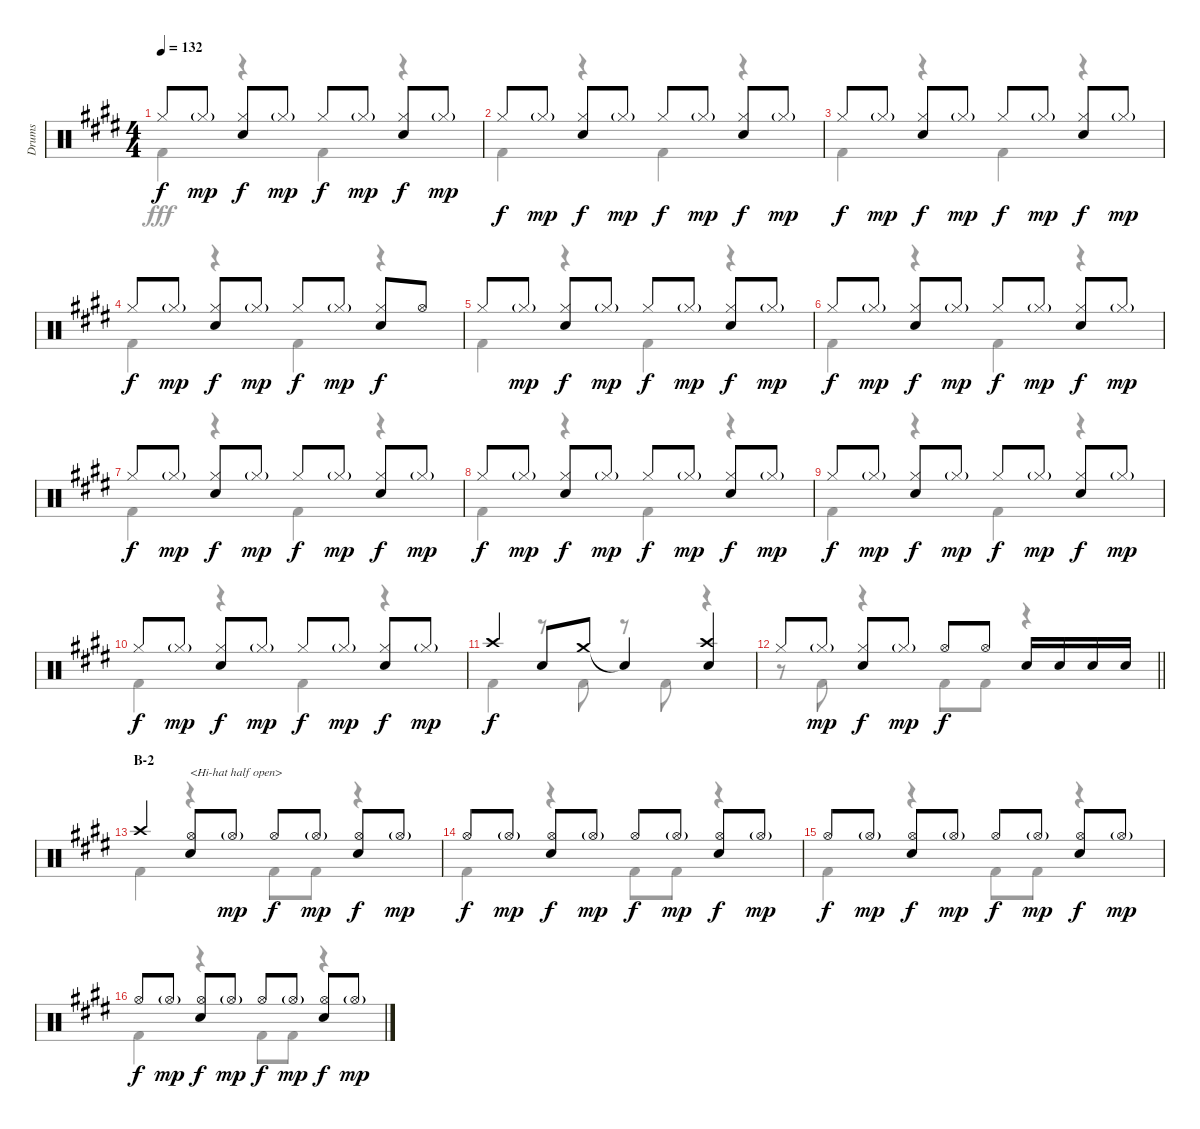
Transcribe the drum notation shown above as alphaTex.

\track ("Drums" "Drums") {instrument percussion}
\staff {score}
\articulation defaults
\voice
\ts (4 4)
\tempo 132
\clef neutral
\ks e "Hi-Hat (closed)".8{dy f} "Hi-Hat (closed)"{g}.8{dy mp}
("Hi-Hat (closed)" "Snare (hit) 2").8{dy f} "Hi-Hat (closed)"{g}.8{dy mp} "Hi-Hat (closed)".8{dy f} "Hi-Hat (closed)"{g}.8{dy mp} ("Hi-Hat (closed)" "Snare (hit) 2").8{dy f} "Hi-Hat (closed)"{g}.8{dy mp} |
"Hi-Hat (closed)".8{dy f} "Hi-Hat (closed)"{g}.8{dy mp} ("Hi-Hat (closed)" "Snare (hit) 2").8{dy f} "Hi-Hat (closed)"{g}.8{dy mp} "Hi-Hat (closed)".8{dy f} "Hi-Hat (closed)"{g}.8{dy mp} ("Hi-Hat (closed)" "Snare (hit) 2").8{dy f} "Hi-Hat (closed)"{g}.8{dy mp} |
"Hi-Hat (closed)".8{dy f} "Hi-Hat (closed)"{g}.8{dy mp} ("Hi-Hat (closed)" "Snare (hit) 2").8{dy f} "Hi-Hat (closed)"{g}.8{dy mp} "Hi-Hat (closed)".8{dy f} "Hi-Hat (closed)"{g}.8{dy mp} ("Hi-Hat (closed)" "Snare (hit) 2").8{dy f} "Hi-Hat (closed)"{g}.8{dy mp} |
"Hi-Hat (closed)".8{dy f} "Hi-Hat (closed)"{g}.8{dy mp} ("Hi-Hat (closed)" "Snare (hit) 2").8{dy f} "Hi-Hat (closed)"{g}.8{dy mp} "Hi-Hat (closed)".8{dy f} "Hi-Hat (closed)"{g}.8{dy mp} ("Hi-Hat (closed)" "Snare (hit) 2").8{dy f} "Hi-Hat (open)".8 |
"Hi-Hat (closed)".8 "Hi-Hat (closed)"{g}.8{dy mp} ("Hi-Hat (closed)" "Snare (hit) 2").8{dy f} "Hi-Hat (closed)"{g}.8{dy mp} "Hi-Hat (closed)".8{dy f} "Hi-Hat (closed)"{g}.8{dy mp} ("Hi-Hat (closed)" "Snare (hit) 2").8{dy f} "Hi-Hat (closed)"{g}.8{dy mp} |
"Hi-Hat (closed)".8{dy f} "Hi-Hat (closed)"{g}.8{dy mp} ("Hi-Hat (closed)" "Snare (hit) 2").8{dy f} "Hi-Hat (closed)"{g}.8{dy mp} "Hi-Hat (closed)".8{dy f} "Hi-Hat (closed)"{g}.8{dy mp} ("Hi-Hat (closed)" "Snare (hit) 2").8{dy f} "Hi-Hat (closed)"{g}.8{dy mp} |
"Hi-Hat (closed)".8{dy f} "Hi-Hat (closed)"{g}.8{dy mp} ("Hi-Hat (closed)" "Snare (hit) 2").8{dy f} "Hi-Hat (closed)"{g}.8{dy mp} "Hi-Hat (closed)".8{dy f} "Hi-Hat (closed)"{g}.8{dy mp} ("Hi-Hat (closed)" "Snare (hit) 2").8{dy f} "Hi-Hat (closed)"{g}.8{dy mp} |
"Hi-Hat (closed)".8{dy f} "Hi-Hat (closed)"{g}.8{dy mp} ("Hi-Hat (closed)" "Snare (hit) 2").8{dy f} "Hi-Hat (closed)"{g}.8{dy mp} "Hi-Hat (closed)".8{dy f} "Hi-Hat (closed)"{g}.8{dy mp} ("Hi-Hat (closed)" "Snare (hit) 2").8{dy f} "Hi-Hat (closed)"{g}.8{dy mp} |
"Hi-Hat (closed)".8{dy f} "Hi-Hat (closed)"{g}.8{dy mp} ("Hi-Hat (closed)" "Snare (hit) 2").8{dy f} "Hi-Hat (closed)"{g}.8{dy mp} "Hi-Hat (closed)".8{dy f} "Hi-Hat (closed)"{g}.8{dy mp} ("Hi-Hat (closed)" "Snare (hit) 2").8{dy f} "Hi-Hat (closed)"{g}.8{dy mp} |
"Hi-Hat (closed)".8{dy f} "Hi-Hat (closed)"{g}.8{dy mp} ("Hi-Hat (closed)" "Snare (hit) 2").8{dy f} "Hi-Hat (closed)"{g}.8{dy mp} "Hi-Hat (closed)".8{dy f} "Hi-Hat (closed)"{g}.8{dy mp} ("Hi-Hat (closed)" "Snare (hit) 2").8{dy f} "Hi-Hat (closed)"{g}.8{dy mp} |
"Crash high (hit)".4{dy f} "Snare (hit) 2".8 "Crash medium (hit)".8 "Snare (hit)"{t}.4 ("Crash high (hit)" "Snare (hit) 2").4 |
\barLineRight lightlight "Hi-Hat (closed)".8 "Hi-Hat (closed)"{g}.8{dy mp}
("Hi-Hat (closed)" "Snare (hit) 2").8{dy f} "Hi-Hat (closed)"{g}.8{dy mp} "Hi-Hat (open)".8{dy f} "Hi-Hat (open)".8 "Snare (hit) 2".16 "Snare (hit) 2".16 "Snare (hit) 2".16 "Snare (hit) 2".16 |
\section ("" "B-2")
"Crash high (hit)".4 ("Hi-Hat (open)" "Snare (hit) 2").8{txt "<Hi-hat half open>"} "Hi-Hat (open)"{g}.8{dy mp} "Hi-Hat (open)".8{dy f} "Hi-Hat (open)"{g}.8{dy mp} ("Hi-Hat (open)" "Snare (hit) 2").8{dy f} "Hi-Hat (open)"{g}.8{dy mp} |
"Hi-Hat (open)".8{dy f} "Hi-Hat (open)"{g}.8{dy mp} ("Hi-Hat (open)" "Snare (hit) 2").8{dy f} "Hi-Hat (open)"{g}.8{dy mp} "Hi-Hat (open)".8{dy f} "Hi-Hat (open)"{g}.8{dy mp} ("Hi-Hat (open)" "Snare (hit) 2").8{dy f} "Hi-Hat (open)"{g}.8{dy mp} |
"Hi-Hat (open)".8{dy f} "Hi-Hat (open)"{g}.8{dy mp} ("Hi-Hat (open)" "Snare (hit) 2").8{dy f} "Hi-Hat (open)"{g}.8{dy mp} "Hi-Hat (open)".8{dy f} "Hi-Hat (open)"{g}.8{dy mp} ("Hi-Hat (open)" "Snare (hit) 2").8{dy f} "Hi-Hat (open)"{g}.8{dy mp} |
"Hi-Hat (open)".8{dy f} "Hi-Hat (open)"{g}.8{dy mp} ("Hi-Hat (open)" "Snare (hit) 2").8{dy f} "Hi-Hat (open)"{g}.8{dy mp} "Hi-Hat (open)".8{dy f} "Hi-Hat (open)"{g}.8{dy mp} ("Hi-Hat (open)" "Snare (hit) 2").8{dy f} "Hi-Hat (open)"{g}.8{dy mp}
\voice
\clef neutral
\ottava regular
\simile none
\ks e "Kick (hit) 2".4{dy fff}
r.4 "Kick (hit) 2".4 r.4 |
"Kick (hit) 2".4 r.4 "Kick (hit) 2".4 r.4 |
"Kick (hit) 2".4 r.4 "Kick (hit) 2".4 r.4 |
"Kick (hit) 2".4 r.4 "Kick (hit) 2".4 r.4 |
"Kick (hit) 2".4 r.4 "Kick (hit) 2".4 r.4 |
"Kick (hit) 2".4 r.4 "Kick (hit) 2".4 r.4 |
"Kick (hit) 2".4 r.4 "Kick (hit) 2".4 r.4 |
"Kick (hit) 2".4 r.4 "Kick (hit) 2".4 r.4 |
"Kick (hit) 2".4 r.4 "Kick (hit) 2".4 r.4 |
"Kick (hit) 2".4 r.4 "Kick (hit) 2".4 r.4 |
"Kick (hit) 2".4 r.8 "Kick (hit) 2".8 r.8 "Kick (hit) 2".8 r.4 |
\barLineRight lightlight
r.8 "Kick (hit) 2".8 r.4 "Kick (hit) 2".8 "Kick (hit) 2".8 r.4 |
"Kick (hit) 2".4 r.4 "Kick (hit) 2".8 "Kick (hit) 2".8 r.4 |
"Kick (hit) 2".4 r.4 "Kick (hit) 2".8 "Kick (hit) 2".8 r.4 |
"Kick (hit) 2".4 r.4 "Kick (hit) 2".8 "Kick (hit) 2".8 r.4 |
"Kick (hit) 2".4 r.4 "Kick (hit) 2".8 "Kick (hit) 2".8 r.4
